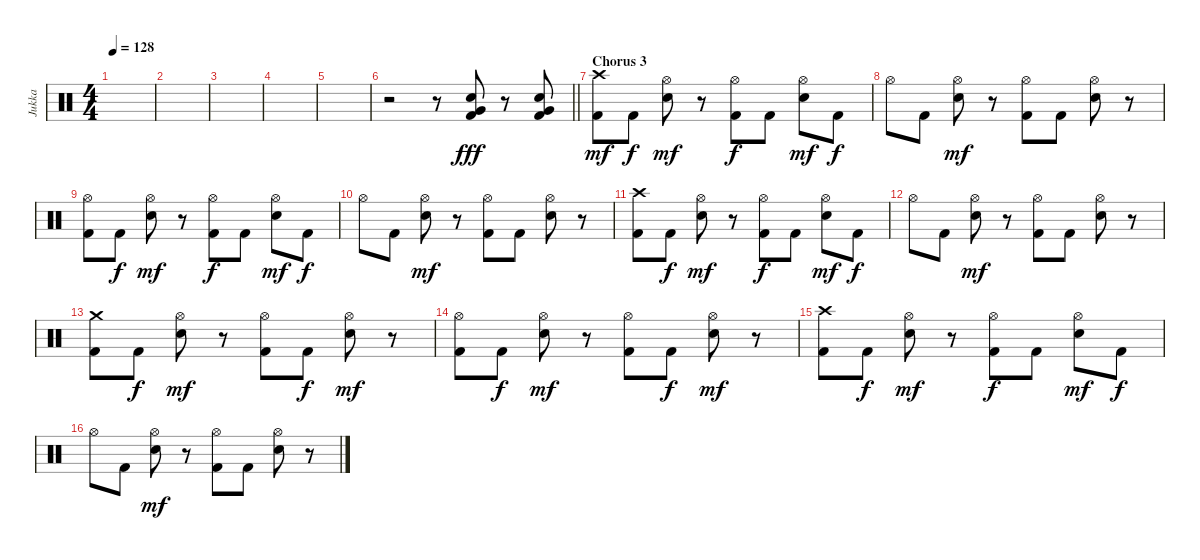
\track ("Jukka" "Jukka") {instrument percussion}
\staff {score}
\articulation defaults
\ts (4 4)
\tempo 128
\clef neutral
\ks c
|
|
|
|
|
\barLineRight lightlight
r.2 r.8 ("Kick (hit) 2" "Electric Snare (hit)" "Very Low Tom (hit)").8{dy fff} r.8 ("Kick (hit) 2" "Electric Snare (hit)" "Very Low Tom (hit)").8 |
\section ("" "Chorus 3")
("Kick (hit) 2" "Crash high (hit)").8{dy mf} "Kick (hit) 2".8{dy f} ("Electric Snare (hit)" "Hi-Hat (open)").8{dy mf} r.8 ("Kick (hit) 2" "Hi-Hat (open)").8{dy f} "Kick (hit) 2".8 ("Electric Snare (hit)" "Hi-Hat (open)").8{dy mf} "Kick (hit) 2".8{dy f} |
"Hi-Hat (open)".8 "Kick (hit) 2".8 ("Electric Snare (hit)" "Hi-Hat (open)").8{dy mf} r.8 ("Kick (hit) 2" "Hi-Hat (open)").8 "Kick (hit) 2".8 ("Electric Snare (hit)" "Hi-Hat (open)").8 r.8 |
("Kick (hit) 2" "Hi-Hat (open)").8 "Kick (hit) 2".8{dy f} ("Electric Snare (hit)" "Hi-Hat (open)").8{dy mf} r.8 ("Kick (hit) 2" "Hi-Hat (open)").8{dy f} "Kick (hit) 2".8 ("Electric Snare (hit)" "Hi-Hat (open)").8{dy mf} "Kick (hit) 2".8{dy f} |
"Hi-Hat (open)".8 "Kick (hit) 2".8 ("Electric Snare (hit)" "Hi-Hat (open)").8{dy mf} r.8 ("Kick (hit) 2" "Hi-Hat (open)").8 "Kick (hit) 2".8 ("Electric Snare (hit)" "Hi-Hat (open)").8 r.8 |
("Kick (hit) 2" "Crash high (hit)").8 "Kick (hit) 2".8{dy f} ("Electric Snare (hit)" "Hi-Hat (open)").8{dy mf} r.8 ("Kick (hit) 2" "Hi-Hat (open)").8{dy f} "Kick (hit) 2".8 ("Electric Snare (hit)" "Hi-Hat (open)").8{dy mf} "Kick (hit) 2".8{dy f} |
"Hi-Hat (open)".8 "Kick (hit) 2".8 ("Electric Snare (hit)" "Hi-Hat (open)").8{dy mf} r.8 ("Kick (hit) 2" "Hi-Hat (open)").8 "Kick (hit) 2".8 ("Electric Snare (hit)" "Hi-Hat (open)").8 r.8 |
("Kick (hit) 2" "Crash medium (hit)").8 "Kick (hit) 2".8{dy f} ("Electric Snare (hit)" "Hi-Hat (open)").8{dy mf} r.8 ("Kick (hit) 2" "Hi-Hat (open)").8 "Kick (hit) 2".8{dy f} ("Electric Snare (hit)" "Hi-Hat (open)").8{dy mf} r.8 |
("Kick (hit) 2" "Hi-Hat (open)").8 "Kick (hit) 2".8{dy f} ("Electric Snare (hit)" "Hi-Hat (open)").8{dy mf} r.8 ("Kick (hit) 2" "Hi-Hat (open)").8 "Kick (hit) 2".8{dy f} ("Electric Snare (hit)" "Hi-Hat (open)").8{dy mf} r.8 |
("Kick (hit) 2" "Crash high (hit)").8 "Kick (hit) 2".8{dy f} ("Electric Snare (hit)" "Hi-Hat (open)").8{dy mf} r.8 ("Kick (hit) 2" "Hi-Hat (open)").8{dy f} "Kick (hit) 2".8 ("Electric Snare (hit)" "Hi-Hat (open)").8{dy mf} "Kick (hit) 2".8{dy f} |
"Hi-Hat (open)".8 "Kick (hit) 2".8 ("Electric Snare (hit)" "Hi-Hat (open)").8{dy mf} r.8 ("Kick (hit) 2" "Hi-Hat (open)").8 "Kick (hit) 2".8 ("Electric Snare (hit)" "Hi-Hat (open)").8 r.8
